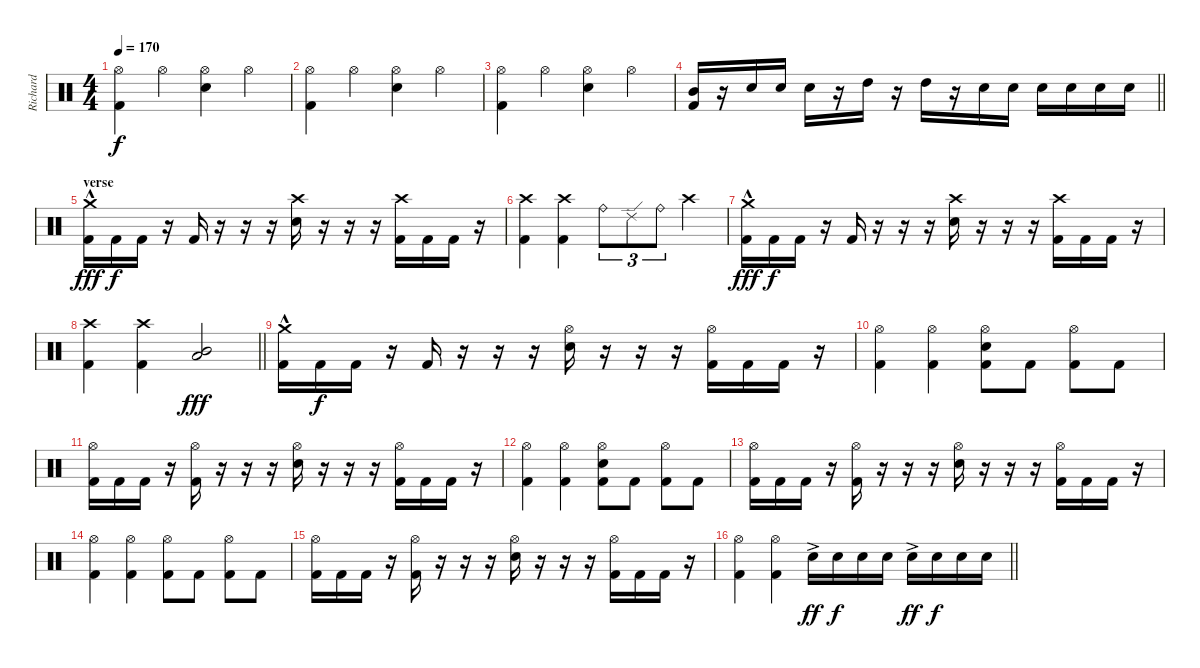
\track ("Richard" "Richard") {instrument percussion}
\staff {score}
\articulation defaults
\ts (4 4)
\tempo 170
\clef neutral
\ks c
("Hi-Hat (open)" "Kick (hit) 2").4{dy f} "Hi-Hat (open)".4 ("Hi-Hat (open)" "Electric Snare (hit)").4 "Hi-Hat (open)".4 |
("Hi-Hat (open)" "Kick (hit) 2").4 "Hi-Hat (open)".4 ("Hi-Hat (open)" "Electric Snare (hit)").4 "Hi-Hat (open)".4 |
("Hi-Hat (open)" "Kick (hit) 2").4 "Hi-Hat (open)".4 ("Hi-Hat (open)" "Electric Snare (hit)").4 "Hi-Hat (open)".4 |
\barLineRight lightlight
("Mid Tom (hit)" "Kick (hit) 2").16 r.16 "Electric Snare (hit)".16 "Electric Snare (hit)".16 "Electric Snare (hit)".16 r.16 "High Tom (hit)".16 r.16 "High Tom (hit)".16 r.16 "Electric Snare (hit)".16 "Electric Snare (hit)".16 "Electric Snare (hit)".16 "Electric Snare (hit)".16 "Electric Snare (hit)".16 "Electric Snare (hit)".16 |
\section ("" "verse")
("Crash medium (hit)"{hac} "Kick (hit) 2").16{dy fff} "Kick (hit) 2".16{dy f} "Kick (hit) 2".16 r.16 "Kick (hit) 2".16 r.16 r.16 r.16 ("Crash high (hit)" "Electric Snare (hit)").16 r.16 r.16 r.16 ("Crash high (hit)" "Kick (hit) 2").16 "Kick (hit) 2".16 "Kick (hit) 2".16 r.16 |
("Crash high (hit)" "Kick (hit) 2").4 ("Crash high (hit)" "Kick (hit) 2").4 "Ride (bell)".8{tu (3 2)} "Ride (edge) 2".8{tu (3 2)} "Ride (bell)".8{tu (3 2)} "Crash high (hit)".4 |
("Crash medium (hit)"{hac} "Kick (hit) 2").16{dy fff} "Kick (hit) 2".16{dy f} "Kick (hit) 2".16 r.16 "Kick (hit) 2".16 r.16 r.16 r.16 ("Crash high (hit)" "Electric Snare (hit)").16 r.16 r.16 r.16 ("Crash high (hit)" "Kick (hit) 2").16 "Kick (hit) 2".16 "Kick (hit) 2".16 r.16 |
\barLineRight lightlight
("Crash high (hit)" "Kick (hit) 2").4 ("Crash high (hit)" "Kick (hit) 2").4 ("Low Tom (hit)" "Mid Tom (hit)").2{dy fff} |
("Crash medium (hit)"{hac} "Kick (hit) 2").16 "Kick (hit) 2".16{dy f} "Kick (hit) 2".16 r.16 "Kick (hit) 2".16 r.16 r.16 r.16 ("Hi-Hat (open)" "Electric Snare (hit)").16 r.16 r.16 r.16 ("Hi-Hat (open)" "Kick (hit) 2").16 "Kick (hit) 2".16 "Kick (hit) 2".16 r.16 |
("Hi-Hat (open)" "Kick (hit) 2").4 ("Hi-Hat (open)" "Kick (hit) 2").4 ("Hi-Hat (open)" "Electric Snare (hit)" "Kick (hit) 2").8 "Kick (hit) 2".8 ("Hi-Hat (open)" "Kick (hit) 2").8 "Kick (hit) 2".8 |
("Hi-Hat (open)" "Kick (hit) 2").16 "Kick (hit) 2".16 "Kick (hit) 2".16 r.16 ("Hi-Hat (open)" "Kick (hit) 2").16 r.16 r.16 r.16 ("Hi-Hat (open)" "Electric Snare (hit)").16 r.16 r.16 r.16 ("Hi-Hat (open)" "Kick (hit) 2").16 "Kick (hit) 2".16 "Kick (hit) 2".16 r.16 |
("Hi-Hat (open)" "Kick (hit) 2").4 ("Hi-Hat (open)" "Kick (hit) 2").4 ("Hi-Hat (open)" "Electric Snare (hit)" "Kick (hit) 2").8 "Kick (hit) 2".8 ("Hi-Hat (open)" "Kick (hit) 2").8 "Kick (hit) 2".8 |
("Hi-Hat (open)" "Kick (hit) 2").16 "Kick (hit) 2".16 "Kick (hit) 2".16 r.16 ("Hi-Hat (open)" "Kick (hit) 2").16 r.16 r.16 r.16 ("Hi-Hat (open)" "Electric Snare (hit)").16 r.16 r.16 r.16 ("Hi-Hat (open)" "Kick (hit) 2").16 "Kick (hit) 2".16 "Kick (hit) 2".16 r.16 |
("Hi-Hat (open)" "Kick (hit) 2").4 ("Hi-Hat (open)" "Kick (hit) 2").4 ("Hi-Hat (open)" "Kick (hit) 2").8 "Kick (hit) 2".8 ("Hi-Hat (open)" "Kick (hit) 2").8 "Kick (hit) 2".8 |
("Hi-Hat (open)" "Kick (hit) 2").16 "Kick (hit) 2".16 "Kick (hit) 2".16 r.16 ("Hi-Hat (open)" "Kick (hit) 2").16 r.16 r.16 r.16 ("Hi-Hat (open)" "Electric Snare (hit)").16 r.16 r.16 r.16 ("Hi-Hat (open)" "Kick (hit) 2").16 "Kick (hit) 2".16 "Kick (hit) 2".16 r.16 |
\barLineRight lightlight
("Hi-Hat (open)" "Kick (hit) 2").4 ("Hi-Hat (open)" "Kick (hit) 2").4 "Electric Snare (hit)"{ac}.16{dy ff} "Electric Snare (hit)".16{dy f} "Electric Snare (hit)".16 "Electric Snare (hit)".16 "Electric Snare (hit)"{ac}.16{dy ff} "Electric Snare (hit)".16{dy f} "Electric Snare (hit)".16 "Electric Snare (hit)".16
